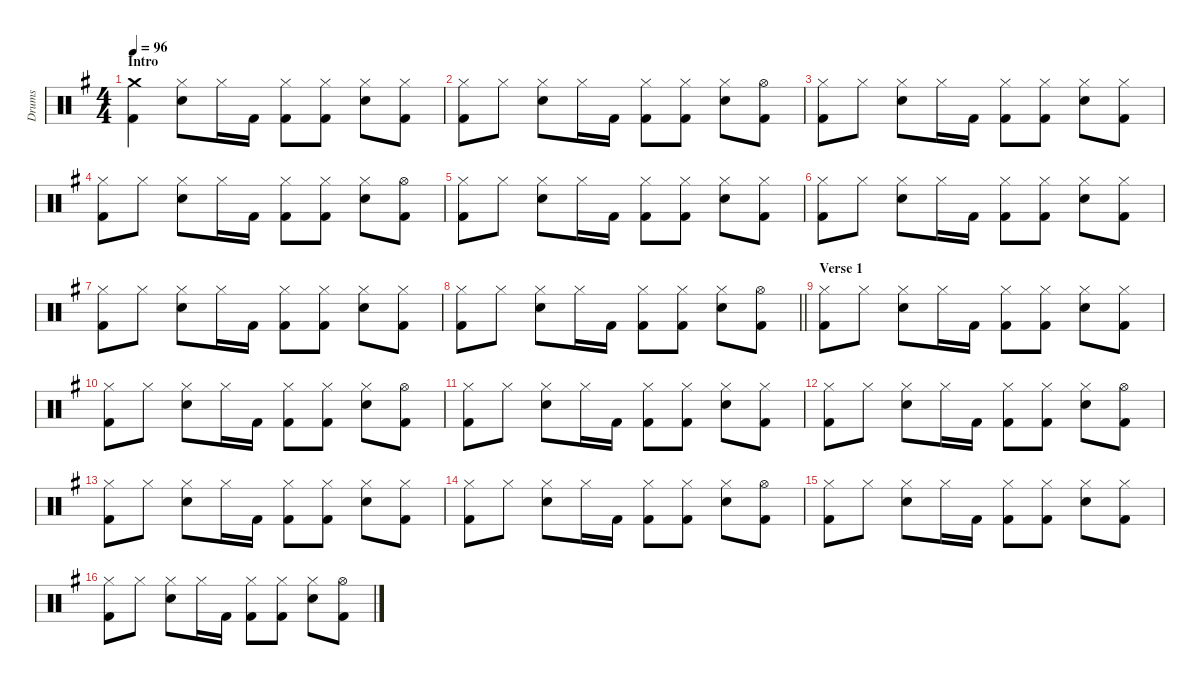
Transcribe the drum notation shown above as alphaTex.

\defaultSystemsLayout 4
\hideDynamics
\bracketExtendMode nobrackets
\otherSystemsTrackNameOrientation horizontal
\track ("Drumkit" "Drums") {instrument percussion}
\staff {score}
\articulation defaults
\ts (4 4)
\beaming (8 2 2 2 2)
\section ("" "Intro")
\tempo 96
\clef neutral
\ks g
("Crash medium (hit)"{acc forcenatural} "Kick (hit) 2"{acc forcenatural}).4{dy f beam Down} ("Hi-Hat (closed)"{acc forcenatural} "Snare (hit) 2"{acc forcenatural}).8{beam Down} "Hi-Hat (closed)"{acc forcenatural}.16{beam Down} "Kick (hit) 2"{acc forcenatural}.16{beam Down} ("Hi-Hat (closed)"{acc forcenatural} "Kick (hit) 2"{acc forcenatural}).8{beam Down} ("Hi-Hat (closed)"{acc forcenatural} "Kick (hit) 2"{acc forcenatural}).8{beam Down} ("Hi-Hat (closed)"{acc forcenatural} "Snare (hit) 2"{acc forcenatural}).8{beam Down} ("Hi-Hat (closed)"{acc forcenatural} "Kick (hit) 2"{acc forcenatural}).8{beam Down} |
("Hi-Hat (closed)"{acc forcenatural} "Kick (hit) 2"{acc forcenatural}).8{beam Down} "Hi-Hat (closed)"{acc forcenatural}.8{beam Down} ("Hi-Hat (closed)"{acc forcenatural} "Snare (hit) 2"{acc forcenatural}).8{beam Down} "Hi-Hat (closed)"{acc forcenatural}.16{beam Down} "Kick (hit) 2"{acc forcenatural}.16{beam Down} ("Hi-Hat (closed)"{acc forcenatural} "Kick (hit) 2"{acc forcenatural}).8{beam Down} ("Hi-Hat (closed)"{acc forcenatural} "Kick (hit) 2"{acc forcenatural}).8{beam Down} ("Hi-Hat (closed)"{acc forcenatural} "Snare (hit) 2"{acc forcenatural}).8{beam Down} ("Hi-Hat (open)"{acc forcenatural} "Kick (hit) 2"{acc forcenatural}).8{beam Down} |
("Hi-Hat (closed)"{acc forcenatural} "Kick (hit) 2"{acc forcenatural}).8{beam Down} "Hi-Hat (closed)"{acc forcenatural}.8{beam Down} ("Hi-Hat (closed)"{acc forcenatural} "Snare (hit) 2"{acc forcenatural}).8{beam Down} "Hi-Hat (closed)"{acc forcenatural}.16{beam Down} "Kick (hit) 2"{acc forcenatural}.16{beam Down} ("Hi-Hat (closed)"{acc forcenatural} "Kick (hit) 2"{acc forcenatural}).8{beam Down} ("Hi-Hat (closed)"{acc forcenatural} "Kick (hit) 2"{acc forcenatural}).8{beam Down} ("Hi-Hat (closed)"{acc forcenatural} "Snare (hit) 2"{acc forcenatural}).8{beam Down} ("Hi-Hat (closed)"{acc forcenatural} "Kick (hit) 2"{acc forcenatural}).8{beam Down} |
("Hi-Hat (closed)"{acc forcenatural} "Kick (hit) 2"{acc forcenatural}).8{beam Down} "Hi-Hat (closed)"{acc forcenatural}.8{beam Down} ("Hi-Hat (closed)"{acc forcenatural} "Snare (hit) 2"{acc forcenatural}).8{beam Down} "Hi-Hat (closed)"{acc forcenatural}.16{beam Down} "Kick (hit) 2"{acc forcenatural}.16{beam Down} ("Hi-Hat (closed)"{acc forcenatural} "Kick (hit) 2"{acc forcenatural}).8{beam Down} ("Hi-Hat (closed)"{acc forcenatural} "Kick (hit) 2"{acc forcenatural}).8{beam Down} ("Hi-Hat (closed)"{acc forcenatural} "Snare (hit) 2"{acc forcenatural}).8{beam Down} ("Hi-Hat (open)"{acc forcenatural} "Kick (hit) 2"{acc forcenatural}).8{beam Down} |
("Hi-Hat (closed)"{acc forcenatural} "Kick (hit) 2"{acc forcenatural}).8{beam Down} "Hi-Hat (closed)"{acc forcenatural}.8{beam Down} ("Hi-Hat (closed)"{acc forcenatural} "Snare (hit) 2"{acc forcenatural}).8{beam Down} "Hi-Hat (closed)"{acc forcenatural}.16{beam Down} "Kick (hit) 2"{acc forcenatural}.16{beam Down} ("Hi-Hat (closed)"{acc forcenatural} "Kick (hit) 2"{acc forcenatural}).8{beam Down} ("Hi-Hat (closed)"{acc forcenatural} "Kick (hit) 2"{acc forcenatural}).8{beam Down} ("Hi-Hat (closed)"{acc forcenatural} "Snare (hit) 2"{acc forcenatural}).8{beam Down} ("Hi-Hat (closed)"{acc forcenatural} "Kick (hit) 2"{acc forcenatural}).8{beam Down} |
("Hi-Hat (closed)"{acc forcenatural} "Kick (hit) 2"{acc forcenatural}).8{beam Down} "Hi-Hat (closed)"{acc forcenatural}.8{beam Down} ("Hi-Hat (closed)"{acc forcenatural} "Snare (hit) 2"{acc forcenatural}).8{beam Down} "Hi-Hat (closed)"{acc forcenatural}.16{beam Down} "Kick (hit) 2"{acc forcenatural}.16{beam Down} ("Hi-Hat (closed)"{acc forcenatural} "Kick (hit) 2"{acc forcenatural}).8{beam Down} ("Hi-Hat (closed)"{acc forcenatural} "Kick (hit) 2"{acc forcenatural}).8{beam Down} ("Hi-Hat (closed)"{acc forcenatural} "Snare (hit) 2"{acc forcenatural}).8{beam Down} ("Hi-Hat (closed)"{acc forcenatural} "Kick (hit) 2"{acc forcenatural}).8{beam Down} |
("Hi-Hat (closed)"{acc forcenatural} "Kick (hit) 2"{acc forcenatural}).8{beam Down} "Hi-Hat (closed)"{acc forcenatural}.8{beam Down} ("Hi-Hat (closed)"{acc forcenatural} "Snare (hit) 2"{acc forcenatural}).8{beam Down} "Hi-Hat (closed)"{acc forcenatural}.16{beam Down} "Kick (hit) 2"{acc forcenatural}.16{beam Down} ("Hi-Hat (closed)"{acc forcenatural} "Kick (hit) 2"{acc forcenatural}).8{beam Down} ("Hi-Hat (closed)"{acc forcenatural} "Kick (hit) 2"{acc forcenatural}).8{beam Down} ("Hi-Hat (closed)"{acc forcenatural} "Snare (hit) 2"{acc forcenatural}).8{beam Down} ("Hi-Hat (closed)"{acc forcenatural} "Kick (hit) 2"{acc forcenatural}).8{beam Down} |
\barLineRight lightlight
("Hi-Hat (closed)"{acc forcenatural} "Kick (hit) 2"{acc forcenatural}).8{beam Down} "Hi-Hat (closed)"{acc forcenatural}.8{beam Down} ("Hi-Hat (closed)"{acc forcenatural} "Snare (hit) 2"{acc forcenatural}).8{beam Down} "Hi-Hat (closed)"{acc forcenatural}.16{beam Down} "Kick (hit) 2"{acc forcenatural}.16{beam Down} ("Hi-Hat (closed)"{acc forcenatural} "Kick (hit) 2"{acc forcenatural}).8{beam Down} ("Hi-Hat (closed)"{acc forcenatural} "Kick (hit) 2"{acc forcenatural}).8{beam Down} ("Hi-Hat (closed)"{acc forcenatural} "Snare (hit) 2"{acc forcenatural}).8{beam Down} ("Hi-Hat (open)"{acc forcenatural} "Kick (hit) 2"{acc forcenatural}).8{beam Down} |
\section ("" "Verse 1")
("Hi-Hat (closed)"{acc forcenatural} "Kick (hit) 2"{acc forcenatural}).8{beam Down} "Hi-Hat (closed)"{acc forcenatural}.8{beam Down} ("Hi-Hat (closed)"{acc forcenatural} "Snare (hit) 2"{acc forcenatural}).8{beam Down} "Hi-Hat (closed)"{acc forcenatural}.16{beam Down} "Kick (hit) 2"{acc forcenatural}.16{beam Down} ("Hi-Hat (closed)"{acc forcenatural} "Kick (hit) 2"{acc forcenatural}).8{beam Down} ("Hi-Hat (closed)"{acc forcenatural} "Kick (hit) 2"{acc forcenatural}).8{beam Down} ("Hi-Hat (closed)"{acc forcenatural} "Snare (hit) 2"{acc forcenatural}).8{beam Down} ("Hi-Hat (closed)"{acc forcenatural} "Kick (hit) 2"{acc forcenatural}).8{beam Down} |
("Hi-Hat (closed)"{acc forcenatural} "Kick (hit) 2"{acc forcenatural}).8{beam Down} "Hi-Hat (closed)"{acc forcenatural}.8{beam Down} ("Hi-Hat (closed)"{acc forcenatural} "Snare (hit) 2"{acc forcenatural}).8{beam Down} "Hi-Hat (closed)"{acc forcenatural}.16{beam Down} "Kick (hit) 2"{acc forcenatural}.16{beam Down} ("Hi-Hat (closed)"{acc forcenatural} "Kick (hit) 2"{acc forcenatural}).8{beam Down} ("Hi-Hat (closed)"{acc forcenatural} "Kick (hit) 2"{acc forcenatural}).8{beam Down} ("Hi-Hat (closed)"{acc forcenatural} "Snare (hit) 2"{acc forcenatural}).8{beam Down} ("Hi-Hat (open)"{acc forcenatural} "Kick (hit) 2"{acc forcenatural}).8{beam Down} |
("Hi-Hat (closed)"{acc forcenatural} "Kick (hit) 2"{acc forcenatural}).8{beam Down} "Hi-Hat (closed)"{acc forcenatural}.8{beam Down} ("Hi-Hat (closed)"{acc forcenatural} "Snare (hit) 2"{acc forcenatural}).8{beam Down} "Hi-Hat (closed)"{acc forcenatural}.16{beam Down} "Kick (hit) 2"{acc forcenatural}.16{beam Down} ("Hi-Hat (closed)"{acc forcenatural} "Kick (hit) 2"{acc forcenatural}).8{beam Down} ("Hi-Hat (closed)"{acc forcenatural} "Kick (hit) 2"{acc forcenatural}).8{beam Down} ("Hi-Hat (closed)"{acc forcenatural} "Snare (hit) 2"{acc forcenatural}).8{beam Down} ("Hi-Hat (closed)"{acc forcenatural} "Kick (hit) 2"{acc forcenatural}).8{beam Down} |
("Hi-Hat (closed)"{acc forcenatural} "Kick (hit) 2"{acc forcenatural}).8{beam Down} "Hi-Hat (closed)"{acc forcenatural}.8{beam Down} ("Hi-Hat (closed)"{acc forcenatural} "Snare (hit) 2"{acc forcenatural}).8{beam Down} "Hi-Hat (closed)"{acc forcenatural}.16{beam Down} "Kick (hit) 2"{acc forcenatural}.16{beam Down} ("Hi-Hat (closed)"{acc forcenatural} "Kick (hit) 2"{acc forcenatural}).8{beam Down} ("Hi-Hat (closed)"{acc forcenatural} "Kick (hit) 2"{acc forcenatural}).8{beam Down} ("Hi-Hat (closed)"{acc forcenatural} "Snare (hit) 2"{acc forcenatural}).8{beam Down} ("Hi-Hat (open)"{acc forcenatural} "Kick (hit) 2"{acc forcenatural}).8{beam Down} |
("Hi-Hat (closed)"{acc forcenatural} "Kick (hit) 2"{acc forcenatural}).8{beam Down} "Hi-Hat (closed)"{acc forcenatural}.8{beam Down} ("Hi-Hat (closed)"{acc forcenatural} "Snare (hit) 2"{acc forcenatural}).8{beam Down} "Hi-Hat (closed)"{acc forcenatural}.16{beam Down} "Kick (hit) 2"{acc forcenatural}.16{beam Down} ("Hi-Hat (closed)"{acc forcenatural} "Kick (hit) 2"{acc forcenatural}).8{beam Down} ("Hi-Hat (closed)"{acc forcenatural} "Kick (hit) 2"{acc forcenatural}).8{beam Down} ("Hi-Hat (closed)"{acc forcenatural} "Snare (hit) 2"{acc forcenatural}).8{beam Down} ("Hi-Hat (closed)"{acc forcenatural} "Kick (hit) 2"{acc forcenatural}).8{beam Down} |
("Hi-Hat (closed)"{acc forcenatural} "Kick (hit) 2"{acc forcenatural}).8{beam Down} "Hi-Hat (closed)"{acc forcenatural}.8{beam Down} ("Hi-Hat (closed)"{acc forcenatural} "Snare (hit) 2"{acc forcenatural}).8{beam Down} "Hi-Hat (closed)"{acc forcenatural}.16{beam Down} "Kick (hit) 2"{acc forcenatural}.16{beam Down} ("Hi-Hat (closed)"{acc forcenatural} "Kick (hit) 2"{acc forcenatural}).8{beam Down} ("Hi-Hat (closed)"{acc forcenatural} "Kick (hit) 2"{acc forcenatural}).8{beam Down} ("Hi-Hat (closed)"{acc forcenatural} "Snare (hit) 2"{acc forcenatural}).8{beam Down} ("Hi-Hat (open)"{acc forcenatural} "Kick (hit) 2"{acc forcenatural}).8{beam Down} |
("Hi-Hat (closed)"{acc forcenatural} "Kick (hit) 2"{acc forcenatural}).8{beam Down} "Hi-Hat (closed)"{acc forcenatural}.8{beam Down} ("Hi-Hat (closed)"{acc forcenatural} "Snare (hit) 2"{acc forcenatural}).8{beam Down} "Hi-Hat (closed)"{acc forcenatural}.16{beam Down} "Kick (hit) 2"{acc forcenatural}.16{beam Down} ("Hi-Hat (closed)"{acc forcenatural} "Kick (hit) 2"{acc forcenatural}).8{beam Down} ("Hi-Hat (closed)"{acc forcenatural} "Kick (hit) 2"{acc forcenatural}).8{beam Down} ("Hi-Hat (closed)"{acc forcenatural} "Snare (hit) 2"{acc forcenatural}).8{beam Down} ("Hi-Hat (closed)"{acc forcenatural} "Kick (hit) 2"{acc forcenatural}).8{beam Down} |
("Hi-Hat (closed)"{acc forcenatural} "Kick (hit) 2"{acc forcenatural}).8{beam Down} "Hi-Hat (closed)"{acc forcenatural}.8{beam Down} ("Hi-Hat (closed)"{acc forcenatural} "Snare (hit) 2"{acc forcenatural}).8{beam Down} "Hi-Hat (closed)"{acc forcenatural}.16{beam Down} "Kick (hit) 2"{acc forcenatural}.16{beam Down} ("Hi-Hat (closed)"{acc forcenatural} "Kick (hit) 2"{acc forcenatural}).8{beam Down} ("Hi-Hat (closed)"{acc forcenatural} "Kick (hit) 2"{acc forcenatural}).8{beam Down} ("Hi-Hat (closed)"{acc forcenatural} "Snare (hit) 2"{acc forcenatural}).8{beam Down} ("Hi-Hat (open)"{acc forcenatural} "Kick (hit) 2"{acc forcenatural}).8{beam Down}
